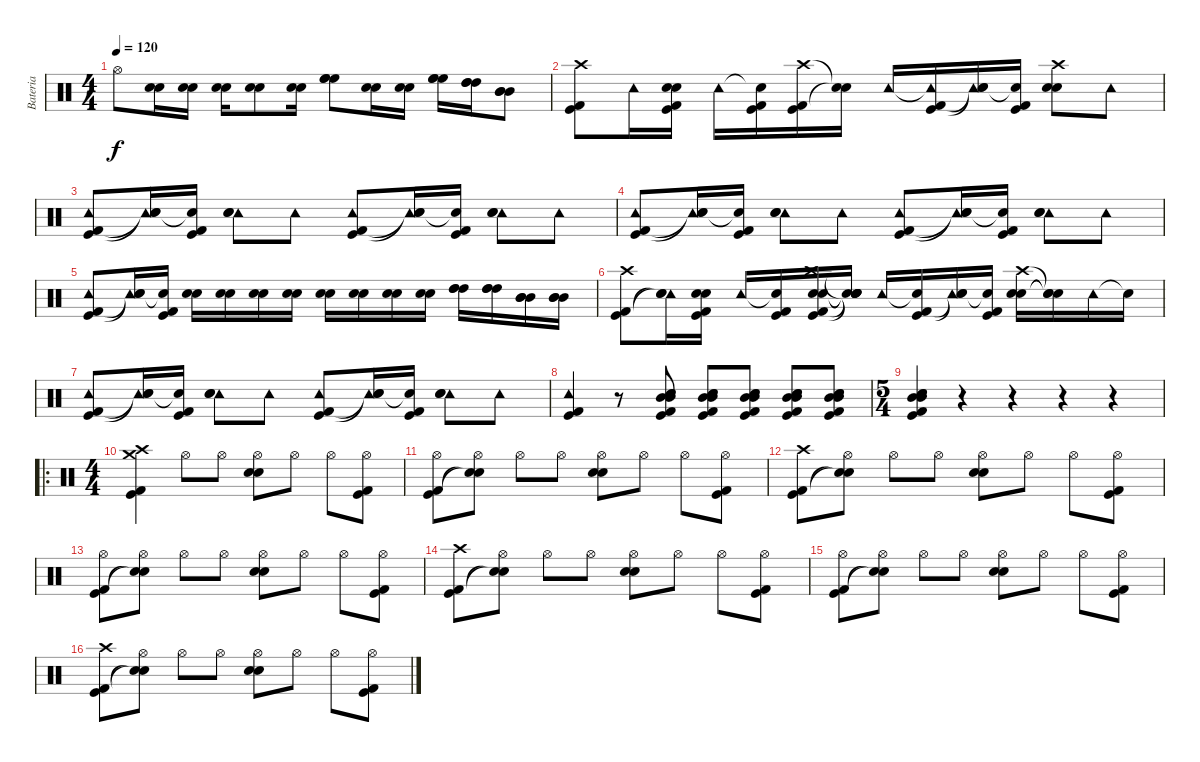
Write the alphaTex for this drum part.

\track ("Bateria" "Bateria") {instrument percussion}
\staff {score}
\articulation defaults
\ts (4 4)
\tempo 120
\clef neutral
\ks c "Hi-Hat (open)".8{dy f}
("Electric Snare (hit)" "Snare (hit) 2").16 ("Electric Snare (hit)" "Snare (hit) 2").16 ("Electric Snare (hit)" "Snare (hit) 2").16 ("Electric Snare (hit)" "Snare (hit) 2").8 ("Electric Snare (hit)" "Snare (hit) 2").16 ("High Floor Tom (hit)" "High Floor Tom (hit)" "High Floor Tom (hit)").8 ("Electric Snare (hit)" "Snare (hit) 2").16 ("Electric Snare (hit)" "Snare (hit) 2").16 ("High Floor Tom (hit)" "High Floor Tom (hit)" "High Floor Tom (hit)").16 ("High Tom (hit)" "High Tom (hit)" "High Tom (hit)").16 ("Mid Tom (hit)" "Mid Tom (hit)" "Mid Tom (hit)").8 |
("Crash high (hit)" "Kick (hit) 2" "Kick (hit)").8 "Tambourine (hit)".16 ("Electric Snare (hit)" "Snare (hit) 2" "Kick (hit)" "Kick (hit) 2").16 "Tambourine (hit)".16 ("Snare (hit)"{t} "Kick (hit)" "Kick (hit) 2").16 ("Crash high (hit)" "Kick (hit)" "Kick (hit) 2").16 ("Snare (hit)"{t} "Snare (hit)"{t}).16 "Tambourine (hit)".16 ("Tambourine (hit)"{t} "Kick (hit)" "Kick (hit) 2").16 ("Tambourine (hit)" "Snare (hit)"{t} "Snare (hit)"{t}).16 ("Snare (hit)"{t} "Kick (hit)" "Kick (hit) 2").16 ("Crash high (hit)" "Electric Snare (hit)" "Snare (hit) 2").8 "Tambourine (hit)".8 |
("Tambourine (hit)" "Kick (hit)" "Kick (hit) 2").8 ("Tambourine (hit)" "Snare (hit)"{t} "Snare (hit)"{t}).16 ("Snare (hit)"{t} "Kick (hit)" "Kick (hit) 2").16 ("Tambourine (hit)" "Electric Snare (hit)" "Snare (hit) 2").8 "Tambourine (hit)".8 ("Tambourine (hit)" "Kick (hit)" "Kick (hit) 2").8 ("Tambourine (hit)" "Snare (hit)"{t} "Snare (hit)"{t}).16 ("Snare (hit)"{t} "Kick (hit)" "Kick (hit) 2").16 ("Tambourine (hit)" "Electric Snare (hit)" "Snare (hit) 2").8 "Tambourine (hit)".8 |
("Tambourine (hit)" "Kick (hit)" "Kick (hit) 2").8 ("Tambourine (hit)" "Snare (hit)"{t} "Snare (hit)"{t}).16 ("Snare (hit)"{t} "Kick (hit)" "Kick (hit) 2").16 ("Tambourine (hit)" "Electric Snare (hit)" "Snare (hit) 2").8 "Tambourine (hit)".8 ("Tambourine (hit)" "Kick (hit)" "Kick (hit) 2").8 ("Tambourine (hit)" "Snare (hit)"{t} "Snare (hit)"{t}).16 ("Snare (hit)"{t} "Kick (hit)" "Kick (hit) 2").16 ("Tambourine (hit)" "Electric Snare (hit)" "Snare (hit) 2").8 "Tambourine (hit)".8 |
("Tambourine (hit)" "Kick (hit)" "Kick (hit) 2").8 ("Tambourine (hit)" "Snare (hit)"{t} "Snare (hit)"{t}).16 ("Snare (hit)"{t} "Kick (hit)" "Kick (hit) 2").16 ("Electric Snare (hit)" "Snare (hit) 2").16 ("Electric Snare (hit)" "Snare (hit) 2").16 ("Electric Snare (hit)" "Snare (hit) 2").16 ("Electric Snare (hit)" "Snare (hit) 2").16 ("Electric Snare (hit)" "Snare (hit) 2").16 ("Electric Snare (hit)" "Snare (hit) 2").16 ("Electric Snare (hit)" "Snare (hit) 2").16 ("Electric Snare (hit)" "Snare (hit) 2").16 ("High Tom (hit)" "High Tom (hit)" "High Tom (hit)").16 ("High Tom (hit)" "High Tom (hit)" "High Tom (hit)").16 ("Mid Tom (hit)" "Mid Tom (hit)" "Mid Tom (hit)").16 ("Mid Tom (hit)" "Mid Tom (hit)" "Mid Tom (hit)").16 |
("Crash high (hit)" "Kick (hit)" "Kick (hit) 2").8 ("Tambourine (hit)" "Snare (hit)"{t} "Snare (hit)"{t}).16 ("Electric Snare (hit)" "Snare (hit) 2" "Kick (hit)" "Kick (hit) 2").16 "Tambourine (hit)".16 ("Snare (hit)"{t} "Kick (hit)" "Kick (hit) 2").16 ("Crash high (hit)" "Electric Snare (hit)" "Snare (hit) 2" "Kick (hit)" "Kick (hit) 2").16 ("Snare (hit)"{t} "Snare (hit)"{t} "Snare (hit)"{t} "Snare (hit)"{t} "Snare (hit)"{t}).16 "Tambourine (hit)".16 ("Snare (hit)"{t} "Kick (hit)" "Kick (hit) 2").16 ("Tambourine (hit)" "Snare (hit)"{t} "Snare (hit)"{t}).16 ("Snare (hit)"{t} "Kick (hit) 2" "Kick (hit)").16 ("Crash high (hit)" "Electric Snare (hit)" "Snare (hit) 2").16 ("Snare (hit)"{t} "Snare (hit)"{t} "Snare (hit)"{t}).16 "Tambourine (hit)".16 "Snare (hit)"{t}.16 |
("Tambourine (hit)" "Kick (hit)" "Kick (hit) 2").8 ("Tambourine (hit)" "Snare (hit)"{t} "Snare (hit)"{t}).16 ("Snare (hit)"{t} "Kick (hit)" "Kick (hit) 2").16 ("Tambourine (hit)" "Electric Snare (hit)" "Snare (hit) 2").8 "Tambourine (hit)".8 ("Tambourine (hit)" "Kick (hit)" "Kick (hit) 2").8 ("Tambourine (hit)" "Snare (hit)"{t} "Snare (hit)"{t}).16 ("Snare (hit)"{t} "Kick (hit)" "Kick (hit) 2").16 ("Tambourine (hit)" "Electric Snare (hit)" "Snare (hit) 2").8 "Tambourine (hit)".8 |
("Tambourine (hit)" "Kick (hit)" "Kick (hit) 2").4 r.8 ("Electric Snare (hit)" "Snare (hit) 2" "Mid Tom (hit)" "Mid Tom (hit)" "Kick (hit)" "Kick (hit) 2").8 ("Electric Snare (hit)" "Snare (hit) 2" "Mid Tom (hit)" "Mid Tom (hit)" "Kick (hit)" "Kick (hit) 2").8 ("Electric Snare (hit)" "Snare (hit) 2" "Mid Tom (hit)" "Mid Tom (hit)" "Kick (hit)" "Kick (hit) 2").8 ("Electric Snare (hit)" "Snare (hit) 2" "Mid Tom (hit)" "Mid Tom (hit)" "Kick (hit)" "Kick (hit) 2").8 ("Electric Snare (hit)" "Snare (hit) 2" "Mid Tom (hit)" "Mid Tom (hit)" "Kick (hit)" "Kick (hit) 2").8 |
\ts (5 4)
("Electric Snare (hit)" "Snare (hit) 2" "Mid Tom (hit)" "Mid Tom (hit)" "Kick (hit)" "Kick (hit) 2").4 r.4 r.4 r.4 r.4 |
\ro
\ts (4 4)
("Crash high (hit)" "Crash medium (hit)" "Kick (hit)" "Kick (hit) 2").4 "Hi-Hat (open)".8 "Hi-Hat (open)".8 ("Hi-Hat (open)" "Electric Snare (hit)" "Snare (hit) 2").8 "Hi-Hat (open)".8 "Hi-Hat (open)".8 ("Hi-Hat (open)" "Kick (hit)" "Kick (hit) 2").8 |
("Hi-Hat (open)" "Kick (hit)" "Kick (hit) 2").8 ("Hi-Hat (open)" "Snare (hit)"{t} "Snare (hit)"{t}).8 "Hi-Hat (open)".8 "Hi-Hat (open)".8 ("Hi-Hat (open)" "Electric Snare (hit)" "Snare (hit) 2").8 "Hi-Hat (open)".8 "Hi-Hat (open)".8 ("Hi-Hat (open)" "Kick (hit)" "Kick (hit) 2").8 |
("Crash high (hit)" "Kick (hit)" "Kick (hit) 2").8 ("Hi-Hat (open)" "Snare (hit)"{t} "Snare (hit)"{t}).8 "Hi-Hat (open)".8 "Hi-Hat (open)".8 ("Hi-Hat (open)" "Electric Snare (hit)" "Snare (hit) 2").8 "Hi-Hat (open)".8 "Hi-Hat (open)".8 ("Hi-Hat (open)" "Kick (hit)" "Kick (hit) 2").8 |
("Hi-Hat (open)" "Kick (hit)" "Kick (hit) 2").8 ("Hi-Hat (open)" "Snare (hit)"{t} "Snare (hit)"{t}).8 "Hi-Hat (open)".8 "Hi-Hat (open)".8 ("Hi-Hat (open)" "Electric Snare (hit)" "Snare (hit) 2").8 "Hi-Hat (open)".8 "Hi-Hat (open)".8 ("Hi-Hat (open)" "Kick (hit)" "Kick (hit) 2").8 |
("Crash high (hit)" "Kick (hit)" "Kick (hit) 2").8 ("Hi-Hat (open)" "Snare (hit)"{t} "Snare (hit)"{t}).8 "Hi-Hat (open)".8 "Hi-Hat (open)".8 ("Hi-Hat (open)" "Electric Snare (hit)" "Snare (hit) 2").8 "Hi-Hat (open)".8 "Hi-Hat (open)".8 ("Hi-Hat (open)" "Kick (hit)" "Kick (hit) 2").8 |
("Hi-Hat (open)" "Kick (hit)" "Kick (hit) 2").8 ("Hi-Hat (open)" "Snare (hit)"{t} "Snare (hit)"{t}).8 "Hi-Hat (open)".8 "Hi-Hat (open)".8 ("Hi-Hat (open)" "Electric Snare (hit)" "Snare (hit) 2").8 "Hi-Hat (open)".8 "Hi-Hat (open)".8 ("Hi-Hat (open)" "Kick (hit)" "Kick (hit) 2").8 |
("Crash high (hit)" "Kick (hit)" "Kick (hit) 2").8 ("Hi-Hat (open)" "Snare (hit)"{t} "Snare (hit)"{t}).8 "Hi-Hat (open)".8 "Hi-Hat (open)".8 ("Hi-Hat (open)" "Electric Snare (hit)" "Snare (hit) 2").8 "Hi-Hat (open)".8 "Hi-Hat (open)".8 ("Hi-Hat (open)" "Kick (hit)" "Kick (hit) 2").8
